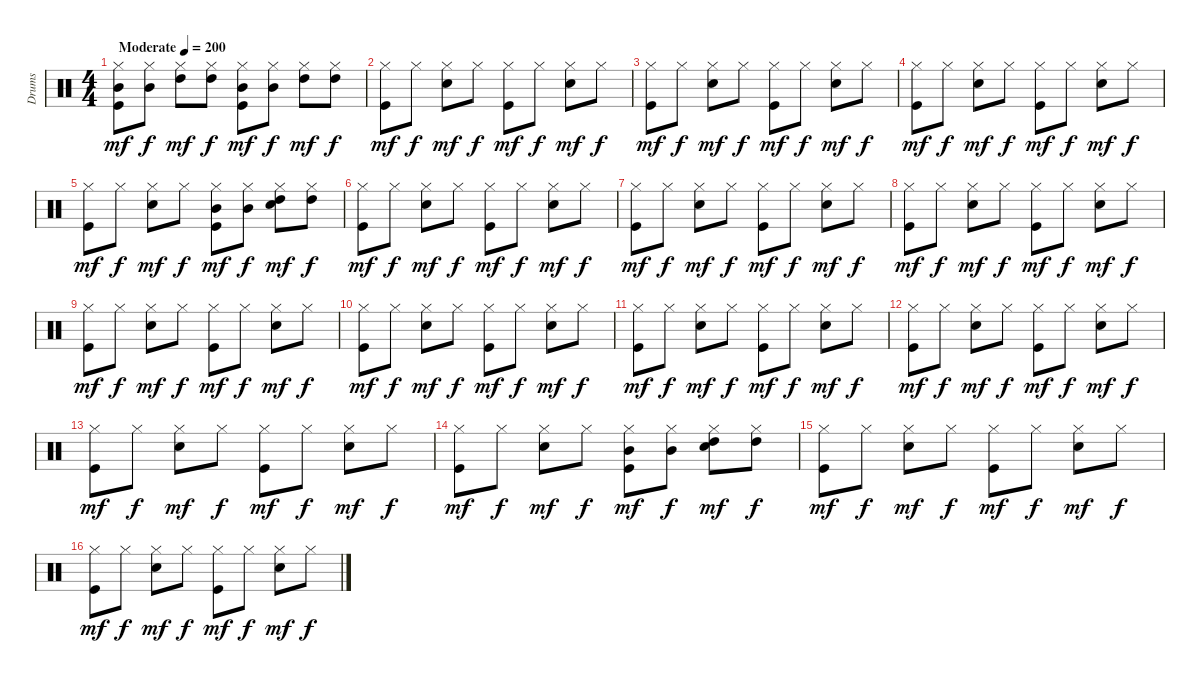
\track ("Drums" "Drums") {instrument percussion}
\staff {score}
\articulation defaults
\ts (4 4)
\tempo (200 "Moderate")
\clef neutral
\ks c
("Mid Tom (hit)" "Hi-Hat (closed)" "Kick (hit)").8{dy mf} ("Mid Tom (hit)" "Hi-Hat (closed)").8{dy f} ("High Tom (hit)" "Hi-Hat (closed)").8{dy mf} ("High Tom (hit)" "Hi-Hat (closed)").8{dy f} ("Mid Tom (hit)" "Hi-Hat (closed)" "Kick (hit)").8{dy mf} ("Mid Tom (hit)" "Hi-Hat (closed)").8{dy f} ("High Tom (hit)" "Hi-Hat (closed)").8{dy mf} ("High Tom (hit)" "Hi-Hat (closed)").8{dy f} |
("Hi-Hat (closed)" "Kick (hit)").8{dy mf} "Hi-Hat (closed)".8{dy f} ("Hi-Hat (closed)" "Electric Snare (hit)").8{dy mf} "Hi-Hat (closed)".8{dy f} ("Hi-Hat (closed)" "Kick (hit)").8{dy mf} "Hi-Hat (closed)".8{dy f} ("Hi-Hat (closed)" "Electric Snare (hit)").8{dy mf} "Hi-Hat (closed)".8{dy f} |
("Hi-Hat (closed)" "Kick (hit)").8{dy mf} "Hi-Hat (closed)".8{dy f} ("Hi-Hat (closed)" "Electric Snare (hit)").8{dy mf} "Hi-Hat (closed)".8{dy f} ("Hi-Hat (closed)" "Kick (hit)").8{dy mf} "Hi-Hat (closed)".8{dy f} ("Hi-Hat (closed)" "Electric Snare (hit)").8{dy mf} "Hi-Hat (closed)".8{dy f} |
("Hi-Hat (closed)" "Kick (hit)").8{dy mf} "Hi-Hat (closed)".8{dy f} ("Hi-Hat (closed)" "Electric Snare (hit)").8{dy mf} "Hi-Hat (closed)".8{dy f} ("Hi-Hat (closed)" "Kick (hit)").8{dy mf} "Hi-Hat (closed)".8{dy f} ("Hi-Hat (closed)" "Electric Snare (hit)").8{dy mf} "Hi-Hat (closed)".8{dy f} |
("Hi-Hat (closed)" "Kick (hit)").8{dy mf} "Hi-Hat (closed)".8{dy f} ("Hi-Hat (closed)" "Electric Snare (hit)").8{dy mf} "Hi-Hat (closed)".8{dy f} ("Mid Tom (hit)" "Hi-Hat (closed)" "Kick (hit)").8{dy mf} ("Mid Tom (hit)" "Hi-Hat (closed)").8{dy f} ("High Tom (hit)" "Hi-Hat (closed)" "Electric Snare (hit)").8{dy mf} ("High Tom (hit)" "Hi-Hat (closed)").8{dy f} |
("Hi-Hat (closed)" "Kick (hit)").8{dy mf} "Hi-Hat (closed)".8{dy f} ("Hi-Hat (closed)" "Electric Snare (hit)").8{dy mf} "Hi-Hat (closed)".8{dy f} ("Hi-Hat (closed)" "Kick (hit)").8{dy mf} "Hi-Hat (closed)".8{dy f} ("Hi-Hat (closed)" "Electric Snare (hit)").8{dy mf} "Hi-Hat (closed)".8{dy f} |
("Hi-Hat (closed)" "Kick (hit)").8{dy mf} "Hi-Hat (closed)".8{dy f} ("Hi-Hat (closed)" "Electric Snare (hit)").8{dy mf} "Hi-Hat (closed)".8{dy f} ("Hi-Hat (closed)" "Kick (hit)").8{dy mf} "Hi-Hat (closed)".8{dy f} ("Hi-Hat (closed)" "Electric Snare (hit)").8{dy mf} "Hi-Hat (closed)".8{dy f} |
("Hi-Hat (closed)" "Kick (hit)").8{dy mf} "Hi-Hat (closed)".8{dy f} ("Hi-Hat (closed)" "Electric Snare (hit)").8{dy mf} "Hi-Hat (closed)".8{dy f} ("Hi-Hat (closed)" "Kick (hit)").8{dy mf} "Hi-Hat (closed)".8{dy f} ("Hi-Hat (closed)" "Electric Snare (hit)").8{dy mf} "Hi-Hat (closed)".8{dy f} |
("Hi-Hat (closed)" "Kick (hit)").8{dy mf} "Hi-Hat (closed)".8{dy f} ("Hi-Hat (closed)" "Electric Snare (hit)").8{dy mf} "Hi-Hat (closed)".8{dy f} ("Hi-Hat (closed)" "Kick (hit)").8{dy mf} "Hi-Hat (closed)".8{dy f} ("Hi-Hat (closed)" "Electric Snare (hit)").8{dy mf} "Hi-Hat (closed)".8{dy f} |
("Hi-Hat (closed)" "Kick (hit)").8{dy mf} "Hi-Hat (closed)".8{dy f} ("Hi-Hat (closed)" "Electric Snare (hit)").8{dy mf} "Hi-Hat (closed)".8{dy f} ("Hi-Hat (closed)" "Kick (hit)").8{dy mf} "Hi-Hat (closed)".8{dy f} ("Hi-Hat (closed)" "Electric Snare (hit)").8{dy mf} "Hi-Hat (closed)".8{dy f} |
("Hi-Hat (closed)" "Kick (hit)").8{dy mf} "Hi-Hat (closed)".8{dy f} ("Hi-Hat (closed)" "Electric Snare (hit)").8{dy mf} "Hi-Hat (closed)".8{dy f} ("Hi-Hat (closed)" "Kick (hit)").8{dy mf} "Hi-Hat (closed)".8{dy f} ("Hi-Hat (closed)" "Electric Snare (hit)").8{dy mf} "Hi-Hat (closed)".8{dy f} |
("Hi-Hat (closed)" "Kick (hit)").8{dy mf} "Hi-Hat (closed)".8{dy f} ("Hi-Hat (closed)" "Electric Snare (hit)").8{dy mf} "Hi-Hat (closed)".8{dy f} ("Hi-Hat (closed)" "Kick (hit)").8{dy mf} "Hi-Hat (closed)".8{dy f} ("Hi-Hat (closed)" "Electric Snare (hit)").8{dy mf} "Hi-Hat (closed)".8{dy f} |
("Hi-Hat (closed)" "Kick (hit)").8{dy mf} "Hi-Hat (closed)".8{dy f} ("Hi-Hat (closed)" "Electric Snare (hit)").8{dy mf} "Hi-Hat (closed)".8{dy f} ("Hi-Hat (closed)" "Kick (hit)").8{dy mf} "Hi-Hat (closed)".8{dy f} ("Hi-Hat (closed)" "Electric Snare (hit)").8{dy mf} "Hi-Hat (closed)".8{dy f} |
("Hi-Hat (closed)" "Kick (hit)").8{dy mf} "Hi-Hat (closed)".8{dy f} ("Hi-Hat (closed)" "Electric Snare (hit)").8{dy mf} "Hi-Hat (closed)".8{dy f} ("Mid Tom (hit)" "Hi-Hat (closed)" "Kick (hit)").8{dy mf} ("Mid Tom (hit)" "Hi-Hat (closed)").8{dy f} ("High Tom (hit)" "Hi-Hat (closed)" "Electric Snare (hit)").8{dy mf} ("High Tom (hit)" "Hi-Hat (closed)").8{dy f} |
("Hi-Hat (closed)" "Kick (hit)").8{dy mf} "Hi-Hat (closed)".8{dy f} ("Hi-Hat (closed)" "Electric Snare (hit)").8{dy mf} "Hi-Hat (closed)".8{dy f} ("Hi-Hat (closed)" "Kick (hit)").8{dy mf} "Hi-Hat (closed)".8{dy f} ("Hi-Hat (closed)" "Electric Snare (hit)").8{dy mf} "Hi-Hat (closed)".8{dy f} |
("Hi-Hat (closed)" "Kick (hit)").8{dy mf} "Hi-Hat (closed)".8{dy f} ("Hi-Hat (closed)" "Electric Snare (hit)").8{dy mf} "Hi-Hat (closed)".8{dy f} ("Hi-Hat (closed)" "Kick (hit)").8{dy mf} "Hi-Hat (closed)".8{dy f} ("Hi-Hat (closed)" "Electric Snare (hit)").8{dy mf} "Hi-Hat (closed)".8{dy f}
